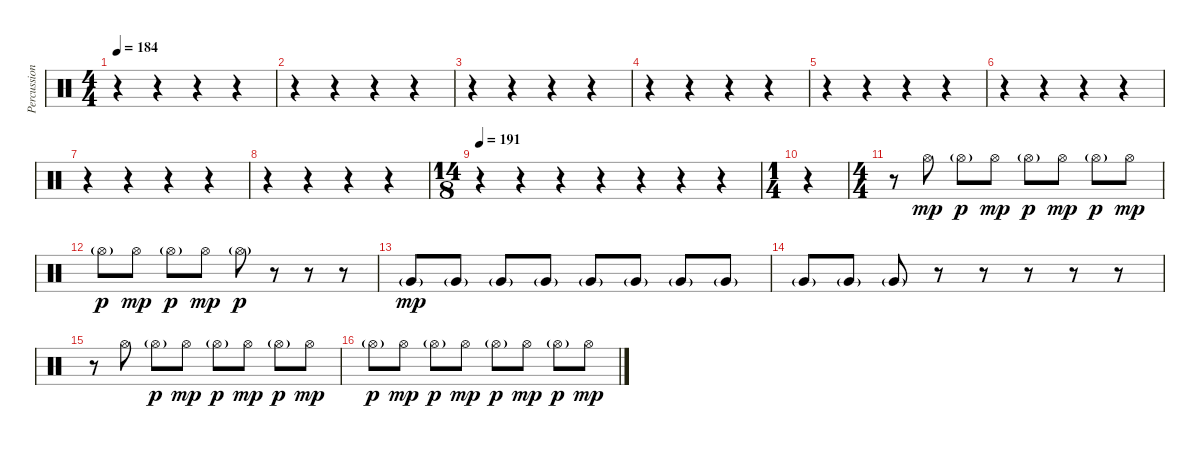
\track ("Percussion2" "Percussion") {instrument percussion}
\staff {score}
\articulation defaults
\ts (4 4)
\tempo 184
\clef neutral
\ks c
r.4{dy mp} r.4 r.4 r.4 |
r.4 r.4 r.4 r.4 |
r.4 r.4 r.4 r.4 |
r.4 r.4 r.4 r.4 |
r.4 r.4 r.4 r.4 |
r.4 r.4 r.4 r.4 |
r.4 r.4 r.4 r.4 |
r.4 r.4 r.4 r.4 |
\ts (14 8)
\tempo 191
r.4 r.4 r.4 r.4 r.4 r.4 r.4 |
\ts (1 4)
r.4 |
\ts (4 4)
r.8 "Hi-Hat (open)".8 "Hi-Hat (open)"{g}.8{dy p} "Hi-Hat (open)".8{dy mp} "Hi-Hat (open)"{g}.8{dy p} "Hi-Hat (open)".8{dy mp} "Hi-Hat (open)"{g}.8{dy p} "Hi-Hat (open)".8{dy mp} |
"Hi-Hat (open)"{g}.8{dy p} "Hi-Hat (open)".8{dy mp} "Hi-Hat (open)"{g}.8{dy p} "Hi-Hat (open)".8{dy mp} "Hi-Hat (open)"{g}.8{dy p} r.8 r.8 r.8 |
"Very Low Tom (hit)"{g}.8{dy mp} "Very Low Tom (hit)"{g}.8 "Very Low Tom (hit)"{g}.8 "Very Low Tom (hit)"{g}.8 "Very Low Tom (hit)"{g}.8 "Very Low Tom (hit)"{g}.8 "Very Low Tom (hit)"{g}.8 "Very Low Tom (hit)"{g}.8 |
"Very Low Tom (hit)"{g}.8 "Very Low Tom (hit)"{g}.8 "Very Low Tom (hit)"{g}.8 r.8 r.8 r.8 r.8 r.8 |
r.8 "Hi-Hat (open)".8 "Hi-Hat (open)"{g}.8{dy p} "Hi-Hat (open)".8{dy mp} "Hi-Hat (open)"{g}.8{dy p} "Hi-Hat (open)".8{dy mp} "Hi-Hat (open)"{g}.8{dy p} "Hi-Hat (open)".8{dy mp} |
"Hi-Hat (open)"{g}.8{dy p} "Hi-Hat (open)".8{dy mp} "Hi-Hat (open)"{g}.8{dy p} "Hi-Hat (open)".8{dy mp} "Hi-Hat (open)"{g}.8{dy p} "Hi-Hat (open)".8{dy mp} "Hi-Hat (open)"{g}.8{dy p} "Hi-Hat (open)".8{dy mp}
